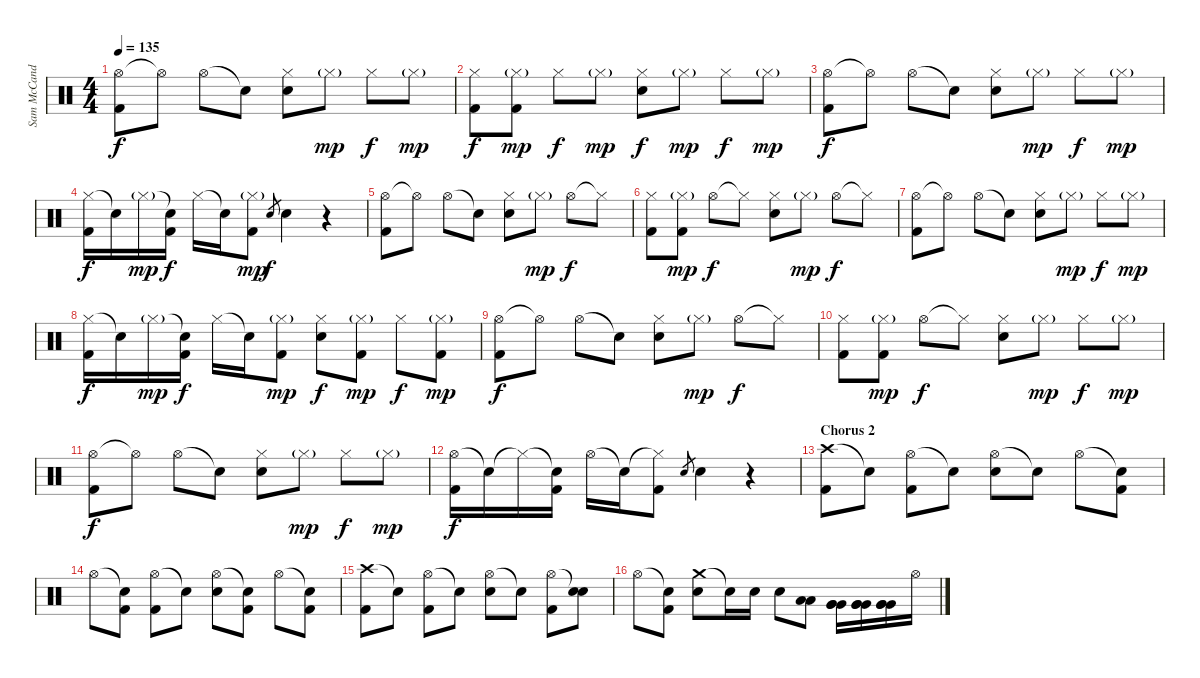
\track ("Sam McCandless (Drums)" "Sam McCand") {instrument percussion}
\staff {score}
\articulation defaults
\ts (4 4)
\tempo 135
\clef neutral
\ks c
("Hi-Hat (open)" "Kick (hit) 2").8{dy f} "Hi-Hat (open)"{t}.8 "Hi-Hat (open)".8 "Snare (hit)"{t}.8 ("Hi-Hat (closed)" "Electric Snare (hit)").8 "Hi-Hat (closed)"{g}.8{dy mp} "Hi-Hat (closed)".8{dy f} "Hi-Hat (closed)"{g}.8{dy mp} |
("Hi-Hat (closed)" "Kick (hit) 2").8{dy f} ("Hi-Hat (closed)"{g} "Kick (hit) 2").8{dy mp} "Hi-Hat (closed)".8{dy f} "Hi-Hat (closed)"{g}.8{dy mp} ("Hi-Hat (closed)" "Electric Snare (hit)").8{dy f} "Hi-Hat (closed)"{g}.8{dy mp} "Hi-Hat (closed)".8{dy f} "Hi-Hat (closed)"{g}.8{dy mp} |
("Hi-Hat (open)" "Kick (hit) 2").8{dy f} "Hi-Hat (open)"{t}.8 "Hi-Hat (open)".8 "Snare (hit)"{t}.8 ("Hi-Hat (closed)" "Electric Snare (hit)").8 "Hi-Hat (closed)"{g}.8{dy mp} "Hi-Hat (closed)".8{dy f} "Hi-Hat (closed)"{g}.8{dy mp} |
("Hi-Hat (closed)" "Kick (hit) 2").16{dy f} "Snare (hit)"{t}.16 "Hi-Hat (closed)"{g}.16{dy mp} ("Snare (hit)"{t} "Kick (hit) 2").16{dy f} "Hi-Hat (closed)".16 "Snare (hit)"{t}.16 ("Hi-Hat (closed)"{g} "Kick (hit) 2").8{dy mp} "Electric Snare (hit)".8{gr dy f} "Electric Snare (hit)".4 r.4 |
("Hi-Hat (open)" "Kick (hit) 2").8 "Hi-Hat (open)"{t}.8 "Hi-Hat (open)".8 "Snare (hit)"{t}.8 ("Hi-Hat (closed)" "Electric Snare (hit)").8 "Hi-Hat (closed)"{g}.8{dy mp} "Hi-Hat (open)".8{dy f} "Hi-Hat (closed)"{t}.8 |
("Hi-Hat (closed)" "Kick (hit) 2").8 ("Hi-Hat (closed)"{g} "Kick (hit) 2").8{dy mp} "Hi-Hat (open)".8{dy f} "Hi-Hat (closed)"{t}.8 ("Hi-Hat (closed)" "Electric Snare (hit)").8 "Hi-Hat (closed)"{g}.8{dy mp} "Hi-Hat (open)".8{dy f} "Hi-Hat (closed)"{t}.8 |
("Hi-Hat (open)" "Kick (hit) 2").8 "Hi-Hat (open)"{t}.8 "Hi-Hat (open)".8 "Snare (hit)"{t}.8 ("Hi-Hat (closed)" "Electric Snare (hit)").8 "Hi-Hat (closed)"{g}.8{dy mp} "Hi-Hat (closed)".8{dy f} "Hi-Hat (closed)"{g}.8{dy mp} |
("Hi-Hat (closed)" "Kick (hit) 2").16{dy f} "Snare (hit)"{t}.16 "Hi-Hat (closed)"{g}.16{dy mp} ("Snare (hit)"{t} "Kick (hit) 2").16{dy f} "Hi-Hat (closed)".16 "Snare (hit)"{t}.16 ("Hi-Hat (closed)"{g} "Kick (hit) 2").8{dy mp} ("Hi-Hat (closed)" "Electric Snare (hit)").8{dy f} ("Hi-Hat (closed)"{g} "Kick (hit) 2").8{dy mp} "Hi-Hat (closed)".8{dy f} ("Hi-Hat (closed)"{g} "Kick (hit) 2").8{dy mp} |
("Hi-Hat (open)" "Kick (hit) 2").8{dy f} "Hi-Hat (open)"{t}.8 "Hi-Hat (open)".8 "Snare (hit)"{t}.8 ("Hi-Hat (closed)" "Electric Snare (hit)").8 "Hi-Hat (closed)"{g}.8{dy mp} "Hi-Hat (open)".8{dy f} "Hi-Hat (closed)"{t}.8 |
("Hi-Hat (closed)" "Kick (hit) 2").8 ("Hi-Hat (closed)"{g} "Kick (hit) 2").8{dy mp} "Hi-Hat (open)".8{dy f} "Hi-Hat (closed)"{t}.8 ("Hi-Hat (closed)" "Electric Snare (hit)").8 "Hi-Hat (closed)"{g}.8{dy mp} "Hi-Hat (closed)".8{dy f} "Hi-Hat (closed)"{g}.8{dy mp} |
("Hi-Hat (open)" "Kick (hit) 2").8{dy f} "Hi-Hat (open)"{t}.8 "Hi-Hat (open)".8 "Snare (hit)"{t}.8 ("Hi-Hat (closed)" "Electric Snare (hit)").8 "Hi-Hat (closed)"{g}.8{dy mp} "Hi-Hat (closed)".8{dy f} "Hi-Hat (closed)"{g}.8{dy mp} |
("Hi-Hat (open)" "Kick (hit) 2").16{dy f} "Snare (hit)"{t}.16 "Hi-Hat (closed)"{t}.16 ("Snare (hit)"{t} "Kick (hit) 2").16 "Hi-Hat (open)".16 "Snare (hit)"{t}.16 ("Hi-Hat (closed)"{t} "Kick (hit) 2").8 "Electric Snare (hit)".8{gr} "Electric Snare (hit)".4 r.4 |
\section ("" "Chorus 2")
("Crash high (hit)" "Kick (hit) 2").8 "Snare (hit)"{t}.8 ("Hi-Hat (open)" "Kick (hit) 2").8 "Snare (hit)"{t}.8 ("Hi-Hat (open)" "Electric Snare (hit)").8 "Snare (hit)"{t}.8 "Hi-Hat (open)".8 ("Snare (hit)"{t} "Kick (hit) 2").8 |
"Hi-Hat (open)".8 ("Snare (hit)"{t} "Kick (hit) 2").8 ("Hi-Hat (open)" "Kick (hit) 2").8 "Snare (hit)"{t}.8 ("Hi-Hat (open)" "Electric Snare (hit)").8 ("Snare (hit)"{t} "Kick (hit) 2").8 "Hi-Hat (open)".8 ("Snare (hit)"{t} "Kick (hit) 2").8 |
("Crash high (hit)" "Kick (hit) 2").8 "Snare (hit)"{t}.8 ("Hi-Hat (open)" "Kick (hit) 2").8 "Snare (hit)"{t}.8 ("Hi-Hat (open)" "Electric Snare (hit)").8 "Snare (hit)"{t}.8 ("Hi-Hat (open)" "Kick (hit) 2").8 ("Snare (hit)"{t} "Electric Snare (hit)").8 |
"Hi-Hat (open)".8 ("Snare (hit)"{t} "Kick (hit) 2").8 ("Crash medium (hit)" "Electric Snare (hit)").8 "Snare (hit)"{t}.16 "Electric Snare (hit)".16 "Electric Snare (hit)".8 ("Low Tom (hit)" "Low Tom (hit)").8 ("Very Low Tom (hit)" "Very Low Tom (hit)" "Very Low Tom (hit)").16 ("Very Low Tom (hit)" "Very Low Tom (hit)" "Very Low Tom (hit)").16 ("Very Low Tom (hit)" "Very Low Tom (hit)" "Very Low Tom (hit)").16 "Hi-Hat (open)".16
